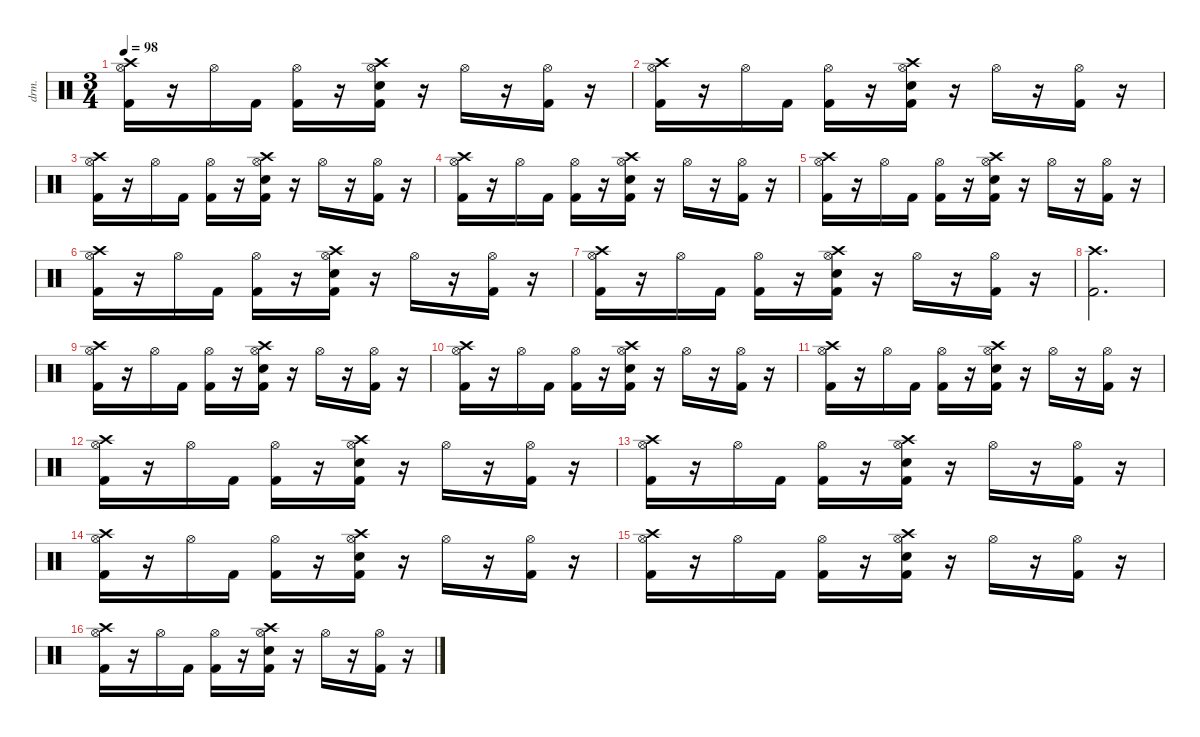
\defaultSystemsLayout 4
\hideDynamics
\bracketExtendMode nobrackets
\otherSystemsTrackNameOrientation horizontal
\track ("Ударные" "drm.") {instrument percussion}
\staff {score}
\articulation defaults
\ts (3 4)
\tempo 98
\clef neutral
\ks c
("Crash high (hit)" "Kick (hit) 2" "Hi-Hat (open)").16{dy fff beam Down} r.16{beam Down} "Hi-Hat (open)".16{dy f beam Down} "Kick (hit) 2".16{dy mf beam Down} ("Kick (hit) 2" "Hi-Hat (open)").16{dy f beam Down} r.16{beam Down} ("Crash high (hit)" "Snare (hit) 2" "Kick (hit) 2" "Hi-Hat (open)").16{beam Down} r.16{beam Down} "Hi-Hat (open)".16{beam Down} r.16{beam Down} ("Kick (hit) 2" "Hi-Hat (open)").16{beam Down} r.16{beam Down} |
("Crash high (hit)" "Kick (hit) 2" "Hi-Hat (open)").16{dy fff beam Down} r.16{beam Down} "Hi-Hat (open)".16{dy f beam Down} "Kick (hit) 2".16{beam Down} ("Kick (hit) 2" "Hi-Hat (open)").16{beam Down} r.16{beam Down} ("Crash high (hit)" "Snare (hit) 2" "Kick (hit) 2" "Hi-Hat (open)").16{beam Down} r.16{beam Down} "Hi-Hat (open)".16{beam Down} r.16{beam Down} ("Kick (hit) 2" "Hi-Hat (open)").16{beam Down} r.16{beam Down} |
("Crash high (hit)" "Kick (hit) 2" "Hi-Hat (open)").16{dy fff beam Down} r.16{beam Down} "Hi-Hat (open)".16{dy f beam Down} "Kick (hit) 2".16{beam Down} ("Kick (hit) 2" "Hi-Hat (open)").16{beam Down} r.16{beam Down} ("Crash high (hit)" "Snare (hit) 2" "Kick (hit) 2" "Hi-Hat (open)").16{beam Down} r.16{beam Down} "Hi-Hat (open)".16{beam Down} r.16{beam Down} ("Kick (hit) 2" "Hi-Hat (open)").16{beam Down} r.16{beam Down} |
("Crash high (hit)" "Kick (hit) 2" "Hi-Hat (open)").16{dy fff beam Down} r.16{beam Down} "Hi-Hat (open)".16{dy f beam Down} "Kick (hit) 2".16{dy mf beam Down} ("Kick (hit) 2" "Hi-Hat (open)").16{dy f beam Down} r.16{beam Down} ("Crash high (hit)" "Snare (hit) 2" "Kick (hit) 2" "Hi-Hat (open)").16{beam Down} r.16{beam Down} "Hi-Hat (open)".16{beam Down} r.16{beam Down} ("Kick (hit) 2" "Hi-Hat (open)").16{beam Down} r.16{beam Down} |
("Crash high (hit)" "Kick (hit) 2" "Hi-Hat (open)").16{dy fff beam Down} r.16{beam Down} "Hi-Hat (open)".16{dy f beam Down} "Kick (hit) 2".16{dy mf beam Down} ("Kick (hit) 2" "Hi-Hat (open)").16{dy f beam Down} r.16{beam Down} ("Crash high (hit)" "Snare (hit) 2" "Kick (hit) 2" "Hi-Hat (open)").16{beam Down} r.16{beam Down} "Hi-Hat (open)".16{beam Down} r.16{beam Down} ("Kick (hit) 2" "Hi-Hat (open)").16{beam Down} r.16{beam Down} |
("Crash high (hit)" "Kick (hit) 2" "Hi-Hat (open)").16{dy fff beam Down} r.16{beam Down} "Hi-Hat (open)".16{dy f beam Down} "Kick (hit) 2".16{beam Down} ("Kick (hit) 2" "Hi-Hat (open)").16{beam Down} r.16{beam Down} ("Crash high (hit)" "Snare (hit) 2" "Kick (hit) 2" "Hi-Hat (open)").16{beam Down} r.16{beam Down} "Hi-Hat (open)".16{beam Down} r.16{beam Down} ("Kick (hit) 2" "Hi-Hat (open)").16{beam Down} r.16{beam Down} |
("Crash high (hit)" "Kick (hit) 2" "Hi-Hat (open)").16{dy fff beam Down} r.16{beam Down} "Hi-Hat (open)".16{dy f beam Down} "Kick (hit) 2".16{beam Down} ("Kick (hit) 2" "Hi-Hat (open)").16{beam Down} r.16{beam Down} ("Crash high (hit)" "Snare (hit) 2" "Kick (hit) 2" "Hi-Hat (open)").16{beam Down} r.16{beam Down} "Hi-Hat (open)".16{beam Down} r.16{beam Down} ("Kick (hit) 2" "Hi-Hat (open)").16{beam Down} r.16{beam Down} |
("Kick (hit) 2" "Crash high (hit)").2{d beam Down} |
("Crash high (hit)" "Kick (hit) 2" "Hi-Hat (open)").16{dy fff beam Down} r.16{beam Down} "Hi-Hat (open)".16{dy f beam Down} "Kick (hit) 2".16{dy mf beam Down} ("Kick (hit) 2" "Hi-Hat (open)").16{dy f beam Down} r.16{beam Down} ("Crash high (hit)" "Snare (hit) 2" "Kick (hit) 2" "Hi-Hat (open)").16{beam Down} r.16{beam Down} "Hi-Hat (open)".16{beam Down} r.16{beam Down} ("Kick (hit) 2" "Hi-Hat (open)").16{beam Down} r.16{beam Down} |
("Crash high (hit)" "Kick (hit) 2" "Hi-Hat (open)").16{dy fff beam Down} r.16{beam Down} "Hi-Hat (open)".16{dy f beam Down} "Kick (hit) 2".16{dy mf beam Down} ("Kick (hit) 2" "Hi-Hat (open)").16{dy f beam Down} r.16{beam Down} ("Crash high (hit)" "Snare (hit) 2" "Kick (hit) 2" "Hi-Hat (open)").16{beam Down} r.16{beam Down} "Hi-Hat (open)".16{beam Down} r.16{beam Down} ("Kick (hit) 2" "Hi-Hat (open)").16{beam Down} r.16{beam Down} |
("Crash high (hit)" "Kick (hit) 2" "Hi-Hat (open)").16{dy fff beam Down} r.16{beam Down} "Hi-Hat (open)".16{dy f beam Down} "Kick (hit) 2".16{beam Down} ("Kick (hit) 2" "Hi-Hat (open)").16{beam Down} r.16{beam Down} ("Crash high (hit)" "Snare (hit) 2" "Kick (hit) 2" "Hi-Hat (open)").16{beam Down} r.16{beam Down} "Hi-Hat (open)".16{beam Down} r.16{beam Down} ("Kick (hit) 2" "Hi-Hat (open)").16{beam Down} r.16{beam Down} |
("Crash high (hit)" "Kick (hit) 2" "Hi-Hat (open)").16{dy fff beam Down} r.16{beam Down} "Hi-Hat (open)".16{dy f beam Down} "Kick (hit) 2".16{beam Down} ("Kick (hit) 2" "Hi-Hat (open)").16{beam Down} r.16{beam Down} ("Crash high (hit)" "Snare (hit) 2" "Kick (hit) 2" "Hi-Hat (open)").16{beam Down} r.16{beam Down} "Hi-Hat (open)".16{beam Down} r.16{beam Down} ("Kick (hit) 2" "Hi-Hat (open)").16{beam Down} r.16{beam Down} |
("Crash high (hit)" "Kick (hit) 2" "Hi-Hat (open)").16{dy fff beam Down} r.16{beam Down} "Hi-Hat (open)".16{dy f beam Down} "Kick (hit) 2".16{dy mf beam Down} ("Kick (hit) 2" "Hi-Hat (open)").16{dy f beam Down} r.16{beam Down} ("Crash high (hit)" "Snare (hit) 2" "Kick (hit) 2" "Hi-Hat (open)").16{beam Down} r.16{beam Down} "Hi-Hat (open)".16{beam Down} r.16{beam Down} ("Kick (hit) 2" "Hi-Hat (open)").16{beam Down} r.16{beam Down} |
("Crash high (hit)" "Kick (hit) 2" "Hi-Hat (open)").16{dy fff beam Down} r.16{beam Down} "Hi-Hat (open)".16{dy f beam Down} "Kick (hit) 2".16{dy mf beam Down} ("Kick (hit) 2" "Hi-Hat (open)").16{dy f beam Down} r.16{beam Down} ("Crash high (hit)" "Snare (hit) 2" "Kick (hit) 2" "Hi-Hat (open)").16{beam Down} r.16{beam Down} "Hi-Hat (open)".16{beam Down} r.16{beam Down} ("Kick (hit) 2" "Hi-Hat (open)").16{beam Down} r.16{beam Down} |
("Crash high (hit)" "Kick (hit) 2" "Hi-Hat (open)").16{dy fff beam Down} r.16{beam Down} "Hi-Hat (open)".16{dy f beam Down} "Kick (hit) 2".16{beam Down} ("Kick (hit) 2" "Hi-Hat (open)").16{beam Down} r.16{beam Down} ("Crash high (hit)" "Snare (hit) 2" "Kick (hit) 2" "Hi-Hat (open)").16{beam Down} r.16{beam Down} "Hi-Hat (open)".16{beam Down} r.16{beam Down} ("Kick (hit) 2" "Hi-Hat (open)").16{beam Down} r.16{beam Down} |
("Crash high (hit)" "Kick (hit) 2" "Hi-Hat (open)").16{dy fff beam Down} r.16{beam Down} "Hi-Hat (open)".16{dy f beam Down} "Kick (hit) 2".16{beam Down} ("Kick (hit) 2" "Hi-Hat (open)").16{beam Down} r.16{beam Down} ("Crash high (hit)" "Snare (hit) 2" "Kick (hit) 2" "Hi-Hat (open)").16{beam Down} r.16{beam Down} "Hi-Hat (open)".16{beam Down} r.16{beam Down} ("Kick (hit) 2" "Hi-Hat (open)").16{beam Down} r.16{beam Down}
